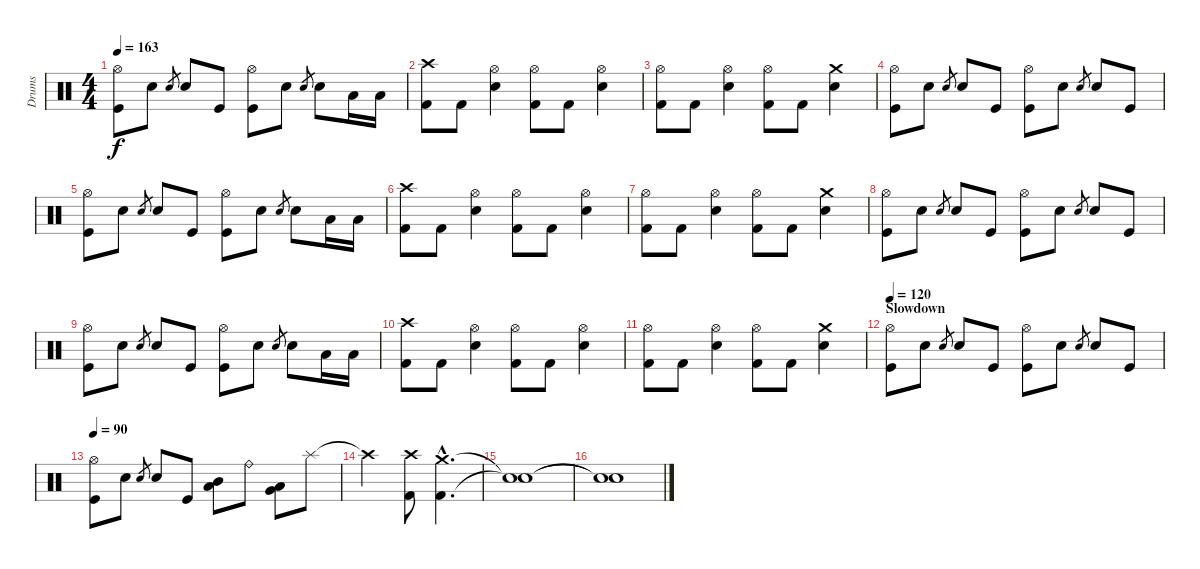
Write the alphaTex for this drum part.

\track ("Drums" "Drums") {instrument percussion}
\staff {score}
\articulation defaults
\ts (4 4)
\tempo 163
\clef neutral
\ks c
("Hi-Hat (open)" "Kick (hit)").8{dy f} "Electric Snare (hit)".8 "Electric Snare (hit)".8{gr} "Electric Snare (hit)".8 "Kick (hit)".8 ("Hi-Hat (open)" "Kick (hit)").8 "Electric Snare (hit)".8 "Electric Snare (hit)".8{gr} "Electric Snare (hit)".8 "Low Tom (hit)".16 "Low Tom (hit)".16 |
("Crash high (hit)" "Kick (hit) 2").8 "Kick (hit) 2".8 ("Hi-Hat (open)" "Electric Snare (hit)").4 ("Hi-Hat (open)" "Kick (hit) 2").8 "Kick (hit) 2".8 ("Hi-Hat (open)" "Electric Snare (hit)").4 |
("Hi-Hat (open)" "Kick (hit) 2").8 "Kick (hit) 2".8 ("Hi-Hat (open)" "Electric Snare (hit)").4 ("Hi-Hat (open)" "Kick (hit) 2").8 "Kick (hit) 2".8 ("Crash medium (hit)" "Electric Snare (hit)").4 |
("Hi-Hat (open)" "Kick (hit)").8 "Electric Snare (hit)".8 "Electric Snare (hit)".8{gr} "Electric Snare (hit)".8 "Kick (hit)".8 ("Hi-Hat (open)" "Kick (hit)").8 "Electric Snare (hit)".8 "Electric Snare (hit)".8{gr} "Electric Snare (hit)".8 "Kick (hit)".8 |
("Hi-Hat (open)" "Kick (hit)").8 "Electric Snare (hit)".8 "Electric Snare (hit)".8{gr} "Electric Snare (hit)".8 "Kick (hit)".8 ("Hi-Hat (open)" "Kick (hit)").8 "Electric Snare (hit)".8 "Electric Snare (hit)".8{gr} "Electric Snare (hit)".8 "Low Tom (hit)".16 "Low Tom (hit)".16 |
("Crash high (hit)" "Kick (hit) 2").8 "Kick (hit) 2".8 ("Hi-Hat (open)" "Electric Snare (hit)").4 ("Hi-Hat (open)" "Kick (hit) 2").8 "Kick (hit) 2".8 ("Hi-Hat (open)" "Electric Snare (hit)").4 |
("Hi-Hat (open)" "Kick (hit) 2").8 "Kick (hit) 2".8 ("Hi-Hat (open)" "Electric Snare (hit)").4 ("Hi-Hat (open)" "Kick (hit) 2").8 "Kick (hit) 2".8 ("Crash medium (hit)" "Electric Snare (hit)").4 |
("Hi-Hat (open)" "Kick (hit)").8 "Electric Snare (hit)".8 "Electric Snare (hit)".8{gr} "Electric Snare (hit)".8 "Kick (hit)".8 ("Hi-Hat (open)" "Kick (hit)").8 "Electric Snare (hit)".8 "Electric Snare (hit)".8{gr} "Electric Snare (hit)".8 "Kick (hit)".8 |
("Hi-Hat (open)" "Kick (hit)").8 "Electric Snare (hit)".8 "Electric Snare (hit)".8{gr} "Electric Snare (hit)".8 "Kick (hit)".8 ("Hi-Hat (open)" "Kick (hit)").8 "Electric Snare (hit)".8 "Electric Snare (hit)".8{gr} "Electric Snare (hit)".8 "Low Tom (hit)".16 "Low Tom (hit)".16 |
("Crash high (hit)" "Kick (hit) 2").8 "Kick (hit) 2".8 ("Hi-Hat (open)" "Electric Snare (hit)").4 ("Hi-Hat (open)" "Kick (hit) 2").8 "Kick (hit) 2".8 ("Hi-Hat (open)" "Electric Snare (hit)").4 |
("Hi-Hat (open)" "Kick (hit) 2").8 "Kick (hit) 2".8 ("Hi-Hat (open)" "Electric Snare (hit)").4 ("Hi-Hat (open)" "Kick (hit) 2").8 "Kick (hit) 2".8 ("Crash medium (hit)" "Electric Snare (hit)").4 |
\section ("" "Slowdown")
\tempo 120
("Hi-Hat (open)" "Kick (hit)").8 "Electric Snare (hit)".8 "Electric Snare (hit)".8{gr} "Electric Snare (hit)".8 "Kick (hit)".8 ("Hi-Hat (open)" "Kick (hit)").8 "Electric Snare (hit)".8 "Electric Snare (hit)".8{gr} "Electric Snare (hit)".8 "Kick (hit)".8 |
\tempo 90
("Hi-Hat (open)" "Kick (hit)").8 "Electric Snare (hit)".8 "Electric Snare (hit)".8{gr} "Electric Snare (hit)".8 "Kick (hit)".8 ("Mid Tom (hit)" "Low Tom (hit)").8 "Ride (bell)".8 ("Low Tom (hit)" "Very Low Tom (hit)").8 "Splash (hit)".8 |
"Crash high (hit)"{t}.2 ("Crash high (hit)" "Kick (hit) 2").8 ("Crash medium (hit)"{hac} "Kick (hit) 2"{hac}).4{d} |
("Snare (hit)"{t} "Snare (hit)"{t}).1 |
("Snare (hit)"{t} "Snare (hit)"{t}).1
